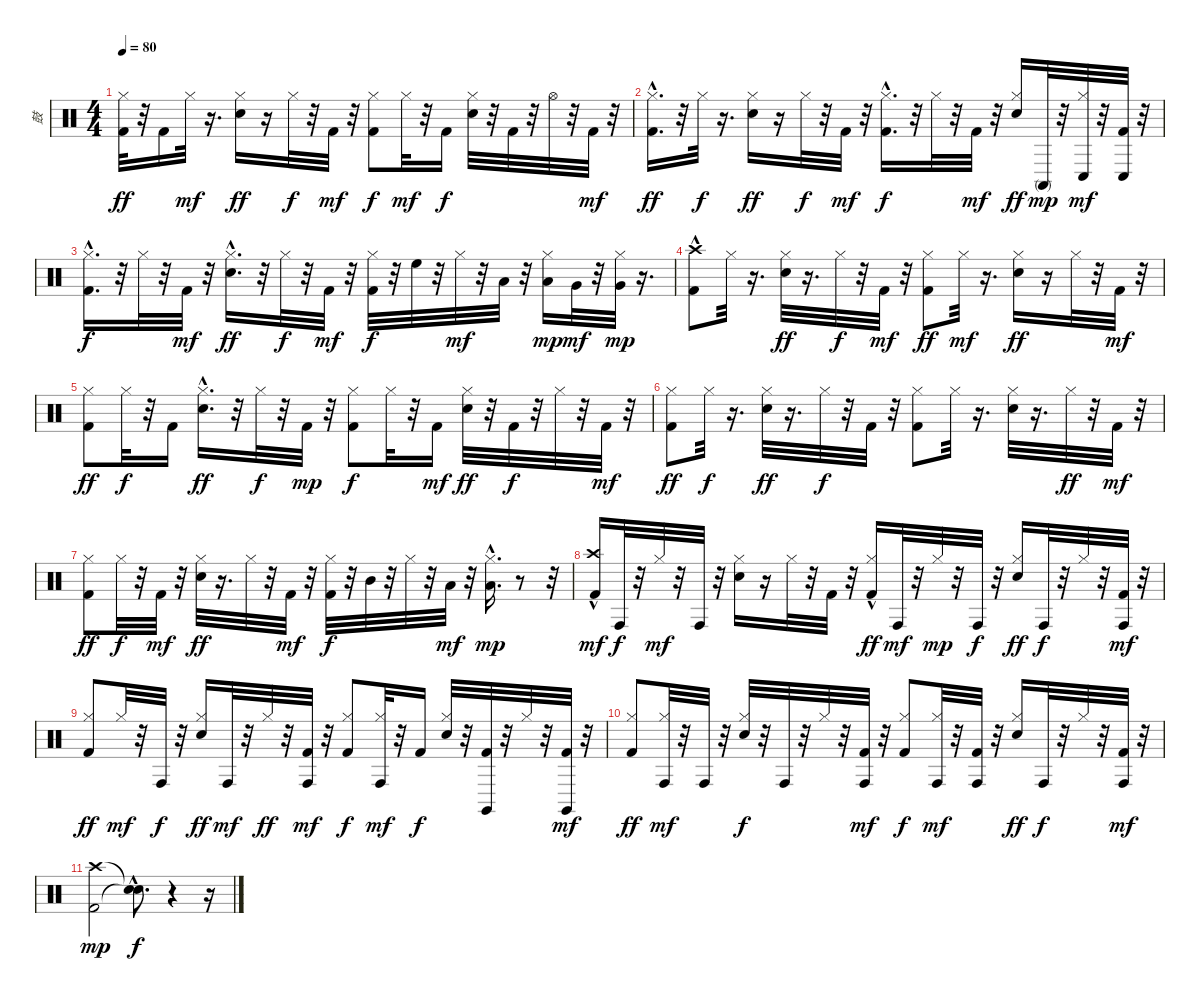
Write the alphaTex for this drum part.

\track ("鼓" "鼓") {instrument percussion}
\staff {score}
\articulation defaults
\ts (4 4)
\tempo 80
\clef neutral
\ks c
("Kick (hit) 2" "Hi-Hat (closed)").32{dy ff} r.32 "Kick (hit) 2".16 "Hi-Hat (closed)".32{dy mf} r.16{d} ("Electric Snare (hit)" "Hi-Hat (closed)").16{dy ff} r.16 "Hi-Hat (closed)".32{dy f} r.32 "Kick (hit) 2".32{dy mf} r.32 ("Kick (hit) 2" "Hi-Hat (closed)").8{dy f} "Hi-Hat (closed)".32{dy mf} r.32 "Kick (hit) 2".16{dy f} ("Electric Snare (hit)" "Hi-Hat (closed)").32 r.32 "Kick (hit) 2".32 r.32 "Hi-Hat (open)".32 r.32 "Kick (hit) 2".32{dy mf} r.32 |
("Kick (hit) 2"{hac} "Hi-Hat (closed)").16{d dy ff} r.32 "Hi-Hat (closed)".32{dy f} r.16{d} ("Electric Snare (hit)" "Hi-Hat (closed)").16{dy ff} r.16 "Hi-Hat (closed)".32{dy f} r.32 "Kick (hit) 2".32{dy mf} r.32 ("Kick (hit) 2"{hac} "Hi-Hat (closed)").16{d dy f} r.32 "Hi-Hat (closed)".32 r.32 "Kick (hit) 2".32{dy mf} r.32 ("Electric Snare (hit)" "Hi-Hat (closed)").16{dy ff} "Conga high (mute)".32{dy mp} r.32 ("Hi-Hat (closed)" "Conga low (hit)").32{dy mf} r.32 ("Kick (hit) 2" "Conga low (hit)").32 r.32 |
("Kick (hit) 2"{hac} "Hi-Hat (closed)").16{d dy f} r.32 "Hi-Hat (closed)".32 r.32 "Kick (hit) 2".32{dy mf} r.32 ("Electric Snare (hit)"{hac} "Hi-Hat (closed)").16{d dy ff} r.32 "Hi-Hat (closed)".32{dy f} r.32 "Kick (hit) 2".32{dy mf} r.32 ("Kick (hit) 2" "Hi-Hat (closed)").32{dy f} r.32 "High Floor Tom (hit)".32 r.32 "Hi-Hat (closed)".32{dy mf} r.32 "Low Tom (hit)".32 r.32 ("Low Tom (hit)" "Hi-Hat (closed)").16{dy mp} "Very Low Tom (hit)".32{dy mf} r.32 ("Very Low Tom (hit)" "Hi-Hat (closed)").32{dy mp} r.16{d} |
("Kick (hit) 2"{hac} "Crash high (hit)").8 "Hi-Hat (closed)".32 r.16{d} ("Electric Snare (hit)" "Hi-Hat (closed)").32{dy ff} r.16{d} "Hi-Hat (closed)".32{dy f} r.32 "Kick (hit) 2".32{dy mf} r.32 ("Kick (hit) 2" "Hi-Hat (closed)").8{dy ff} "Hi-Hat (closed)".32{dy mf} r.16{d} ("Electric Snare (hit)" "Hi-Hat (closed)").16{dy ff} r.16 "Hi-Hat (closed)".32 r.32 "Kick (hit) 2".32{dy mf} r.32 |
("Kick (hit) 2" "Hi-Hat (closed)").8{dy ff} "Hi-Hat (closed)".32{dy f} r.32 "Kick (hit) 2".16 ("Electric Snare (hit)"{hac} "Hi-Hat (closed)").16{d dy ff} r.32 "Hi-Hat (closed)".32{dy f} r.32 "Kick (hit) 2".32{dy mp} r.32 ("Kick (hit) 2" "Hi-Hat (closed)").8{dy f} "Hi-Hat (closed)".32 r.32 "Kick (hit) 2".16{dy mf} ("Electric Snare (hit)" "Hi-Hat (closed)").32{dy ff} r.32 "Kick (hit) 2".32{dy f} r.32 "Hi-Hat (closed)".32 r.32 "Kick (hit) 2".32{dy mf} r.32 |
("Kick (hit) 2" "Hi-Hat (closed)").8{dy ff} "Hi-Hat (closed)".32{dy f} r.16{d} ("Electric Snare (hit)" "Hi-Hat (closed)").32{dy ff} r.16{d} "Hi-Hat (closed)".32{dy f} r.32 "Kick (hit) 2".32 r.32 ("Kick (hit) 2" "Hi-Hat (closed)").8 "Hi-Hat (closed)".32 r.16{d} ("Electric Snare (hit)" "Hi-Hat (closed)").32 r.16{d} "Hi-Hat (closed)".32{dy ff} r.32 "Kick (hit) 2".32{dy mf} r.32 |
("Kick (hit) 2" "Hi-Hat (closed)").8{dy ff} "Hi-Hat (closed)".32{dy f} r.32 "Kick (hit) 2".32{dy mf} r.32 ("Electric Snare (hit)" "Hi-Hat (closed)").32{dy ff} r.16{d} "Hi-Hat (closed)".32 r.32 "Kick (hit) 2".32{dy mf} r.32 ("Kick (hit) 2" "Hi-Hat (closed)").32{dy f} r.32 "Mid Tom (hit)".32 r.32 "Hi-Hat (closed)".32 r.32 "Low Tom (hit)".32{dy mf} r.32 ("Low Tom (hit)"{hac} "Hi-Hat (closed)").16{d dy mp} r.8 r.32 |
("Kick (hit) 2"{hac} "Crash high (hit)").16{dy mf} "Conga high (hit)".32{dy f} r.32 "Hi-Hat (closed)".32{dy mf} r.32 "Conga high (hit)".32 r.32 ("Electric Snare (hit)" "Hi-Hat (closed)").16 r.16 "Hi-Hat (closed)".32 r.32 "Kick (hit) 2".32 r.32 ("Kick (hit) 2"{hac} "Hi-Hat (closed)").16{dy ff} "Conga high (hit)".32{dy mf} r.32 "Hi-Hat (closed)".32{dy mp} r.32 "Conga high (hit)".32{dy f} r.32 ("Electric Snare (hit)" "Hi-Hat (closed)").16{dy ff} "Conga high (hit)".32{dy f} r.32 "Hi-Hat (closed)".32 r.32 ("Kick (hit) 2" "Conga high (hit)").32{dy mf} r.32 |
("Kick (hit) 2" "Hi-Hat (closed)").8{dy ff} "Hi-Hat (closed)".32{dy mf} r.32 "Conga high (hit)".32{dy f} r.32 ("Electric Snare (hit)" "Hi-Hat (closed)").16{dy ff} "Conga high (hit)".32{dy mf} r.32 "Hi-Hat (closed)".32{dy ff} r.32 ("Kick (hit) 2" "Conga high (hit)").32{dy mf} r.32 ("Kick (hit) 2" "Hi-Hat (closed)").8{dy f} ("Hi-Hat (closed)" "Conga high (hit)").32{dy mf} r.32 "Kick (hit) 2".16{dy f} ("Electric Snare (hit)" "Hi-Hat (closed)").32 r.32 ("Kick (hit) 2" "Claves (hit)").32 r.32 "Hi-Hat (closed)".32 r.32 ("Kick (hit) 2" "Claves (hit)").32{dy mf} r.32 |
("Kick (hit) 2" "Hi-Hat (closed)").8{dy ff} ("Hi-Hat (closed)" "Conga high (hit)").32{dy mf} r.32 "Conga high (hit)".32 r.32 ("Electric Snare (hit)" "Hi-Hat (closed)").32{dy f} r.32 "Conga high (hit)".32 r.32 "Hi-Hat (closed)".32 r.32 ("Kick (hit) 2" "Conga high (hit)").32{dy mf} r.32 ("Kick (hit) 2" "Hi-Hat (closed)").8{dy f} ("Hi-Hat (closed)" "Conga high (hit)").32{dy mf} r.32 ("Kick (hit) 2" "Conga high (hit)").32 r.32 ("Electric Snare (hit)" "Hi-Hat (closed)").16{dy ff} "Conga high (hit)".32{dy f} r.32 "Hi-Hat (closed)".32 r.32 ("Kick (hit) 2" "Conga high (hit)").32{dy mf} r.32 |
("Crash high (hit)" "Kick (hit) 2").2{dy mp} ("Snare (hit)"{hac t} "Snare (hit)"{hac t}).8{d dy f} r.4 r.16
